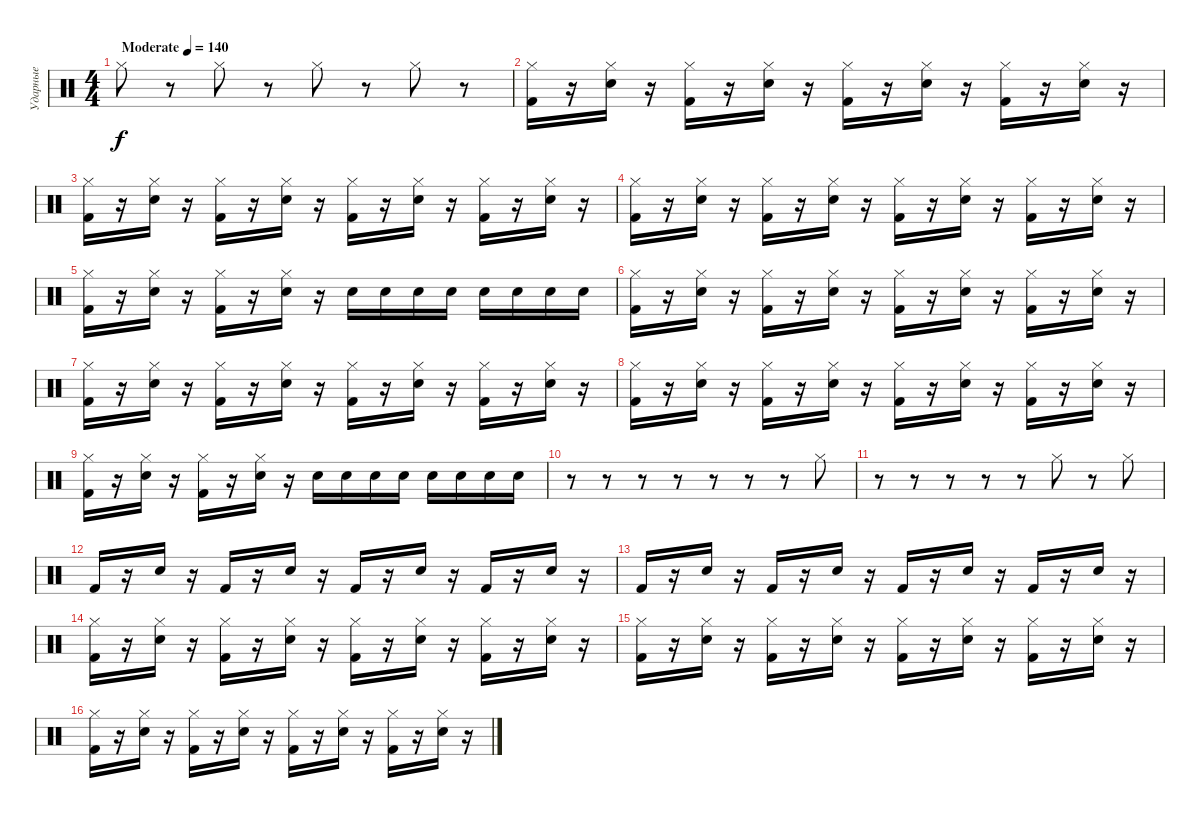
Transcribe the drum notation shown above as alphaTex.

\track ("Ударные" "Ударные") {instrument percussion}
\staff {score}
\articulation defaults
\ts (4 4)
\tempo (140 "Moderate")
\clef neutral
\ks c "Hi-Hat (closed)".8{dy f}
r.8 "Hi-Hat (closed)".8 r.8 "Hi-Hat (closed)".8 r.8 "Hi-Hat (closed)".8 r.8 |
("Kick (hit) 2" "Hi-Hat (closed)").16 r.16 ("Electric Snare (hit)" "Hi-Hat (closed)").16 r.16 ("Kick (hit) 2" "Hi-Hat (closed)").16 r.16 ("Electric Snare (hit)" "Hi-Hat (closed)").16 r.16 ("Kick (hit) 2" "Hi-Hat (closed)").16 r.16 ("Electric Snare (hit)" "Hi-Hat (closed)").16 r.16 ("Kick (hit) 2" "Hi-Hat (closed)").16 r.16 ("Electric Snare (hit)" "Hi-Hat (closed)").16 r.16 |
("Kick (hit) 2" "Hi-Hat (closed)").16 r.16 ("Electric Snare (hit)" "Hi-Hat (closed)").16 r.16 ("Kick (hit) 2" "Hi-Hat (closed)").16 r.16 ("Electric Snare (hit)" "Hi-Hat (closed)").16 r.16 ("Kick (hit) 2" "Hi-Hat (closed)").16 r.16 ("Electric Snare (hit)" "Hi-Hat (closed)").16 r.16 ("Kick (hit) 2" "Hi-Hat (closed)").16 r.16 ("Electric Snare (hit)" "Hi-Hat (closed)").16 r.16 |
("Kick (hit) 2" "Hi-Hat (closed)").16 r.16 ("Electric Snare (hit)" "Hi-Hat (closed)").16 r.16 ("Kick (hit) 2" "Hi-Hat (closed)").16 r.16 ("Electric Snare (hit)" "Hi-Hat (closed)").16 r.16 ("Kick (hit) 2" "Hi-Hat (closed)").16 r.16 ("Electric Snare (hit)" "Hi-Hat (closed)").16 r.16 ("Kick (hit) 2" "Hi-Hat (closed)").16 r.16 ("Electric Snare (hit)" "Hi-Hat (closed)").16 r.16 |
("Kick (hit) 2" "Hi-Hat (closed)").16 r.16 ("Electric Snare (hit)" "Hi-Hat (closed)").16 r.16 ("Kick (hit) 2" "Hi-Hat (closed)").16 r.16 ("Electric Snare (hit)" "Hi-Hat (closed)").16 r.16 "Electric Snare (hit)".16 "Electric Snare (hit)".16 "Electric Snare (hit)".16 "Electric Snare (hit)".16 "Electric Snare (hit)".16 "Electric Snare (hit)".16 "Electric Snare (hit)".16 "Electric Snare (hit)".16 |
("Kick (hit) 2" "Hi-Hat (closed)").16 r.16 ("Electric Snare (hit)" "Hi-Hat (closed)").16 r.16 ("Kick (hit) 2" "Hi-Hat (closed)").16 r.16 ("Electric Snare (hit)" "Hi-Hat (closed)").16 r.16 ("Kick (hit) 2" "Hi-Hat (closed)").16 r.16 ("Electric Snare (hit)" "Hi-Hat (closed)").16 r.16 ("Kick (hit) 2" "Hi-Hat (closed)").16 r.16 ("Electric Snare (hit)" "Hi-Hat (closed)").16 r.16 |
("Kick (hit) 2" "Hi-Hat (closed)").16 r.16 ("Electric Snare (hit)" "Hi-Hat (closed)").16 r.16 ("Kick (hit) 2" "Hi-Hat (closed)").16 r.16 ("Electric Snare (hit)" "Hi-Hat (closed)").16 r.16 ("Kick (hit) 2" "Hi-Hat (closed)").16 r.16 ("Electric Snare (hit)" "Hi-Hat (closed)").16 r.16 ("Kick (hit) 2" "Hi-Hat (closed)").16 r.16 ("Electric Snare (hit)" "Hi-Hat (closed)").16 r.16 |
("Kick (hit) 2" "Hi-Hat (closed)").16 r.16 ("Electric Snare (hit)" "Hi-Hat (closed)").16 r.16 ("Kick (hit) 2" "Hi-Hat (closed)").16 r.16 ("Electric Snare (hit)" "Hi-Hat (closed)").16 r.16 ("Kick (hit) 2" "Hi-Hat (closed)").16 r.16 ("Electric Snare (hit)" "Hi-Hat (closed)").16 r.16 ("Kick (hit) 2" "Hi-Hat (closed)").16 r.16 ("Electric Snare (hit)" "Hi-Hat (closed)").16 r.16 |
("Kick (hit) 2" "Hi-Hat (closed)").16 r.16 ("Electric Snare (hit)" "Hi-Hat (closed)").16 r.16 ("Kick (hit) 2" "Hi-Hat (closed)").16 r.16 ("Electric Snare (hit)" "Hi-Hat (closed)").16 r.16 "Electric Snare (hit)".16 "Electric Snare (hit)".16 "Electric Snare (hit)".16 "Electric Snare (hit)".16 "Electric Snare (hit)".16 "Electric Snare (hit)".16 "Electric Snare (hit)".16 "Electric Snare (hit)".16 |
r.8 r.8 r.8 r.8 r.8 r.8 r.8 "Hi-Hat (closed)".8 |
r.8 r.8 r.8 r.8 r.8 "Hi-Hat (closed)".8 r.8 "Hi-Hat (closed)".8 |
"Kick (hit) 2".16 r.16 "Electric Snare (hit)".16 r.16 "Kick (hit) 2".16 r.16 "Electric Snare (hit)".16 r.16 "Kick (hit) 2".16 r.16 "Electric Snare (hit)".16 r.16 "Kick (hit) 2".16 r.16 "Electric Snare (hit)".16 r.16 |
"Kick (hit) 2".16 r.16 "Electric Snare (hit)".16 r.16 "Kick (hit) 2".16 r.16 "Electric Snare (hit)".16 r.16 "Kick (hit) 2".16 r.16 "Electric Snare (hit)".16 r.16 "Kick (hit) 2".16 r.16 "Electric Snare (hit)".16 r.16 |
("Kick (hit) 2" "Hi-Hat (closed)").16 r.16 ("Electric Snare (hit)" "Hi-Hat (closed)").16 r.16 ("Kick (hit) 2" "Hi-Hat (closed)").16 r.16 ("Electric Snare (hit)" "Hi-Hat (closed)").16 r.16 ("Kick (hit) 2" "Hi-Hat (closed)").16 r.16 ("Electric Snare (hit)" "Hi-Hat (closed)").16 r.16 ("Kick (hit) 2" "Hi-Hat (closed)").16 r.16 ("Electric Snare (hit)" "Hi-Hat (closed)").16 r.16 |
("Kick (hit) 2" "Hi-Hat (closed)").16 r.16 ("Electric Snare (hit)" "Hi-Hat (closed)").16 r.16 ("Kick (hit) 2" "Hi-Hat (closed)").16 r.16 ("Electric Snare (hit)" "Hi-Hat (closed)").16 r.16 ("Kick (hit) 2" "Hi-Hat (closed)").16 r.16 ("Electric Snare (hit)" "Hi-Hat (closed)").16 r.16 ("Kick (hit) 2" "Hi-Hat (closed)").16 r.16 ("Electric Snare (hit)" "Hi-Hat (closed)").16 r.16 |
("Kick (hit) 2" "Hi-Hat (closed)").16 r.16 ("Electric Snare (hit)" "Hi-Hat (closed)").16 r.16 ("Kick (hit) 2" "Hi-Hat (closed)").16 r.16 ("Electric Snare (hit)" "Hi-Hat (closed)").16 r.16 ("Kick (hit) 2" "Hi-Hat (closed)").16 r.16 ("Electric Snare (hit)" "Hi-Hat (closed)").16 r.16 ("Kick (hit) 2" "Hi-Hat (closed)").16 r.16 ("Electric Snare (hit)" "Hi-Hat (closed)").16 r.16
